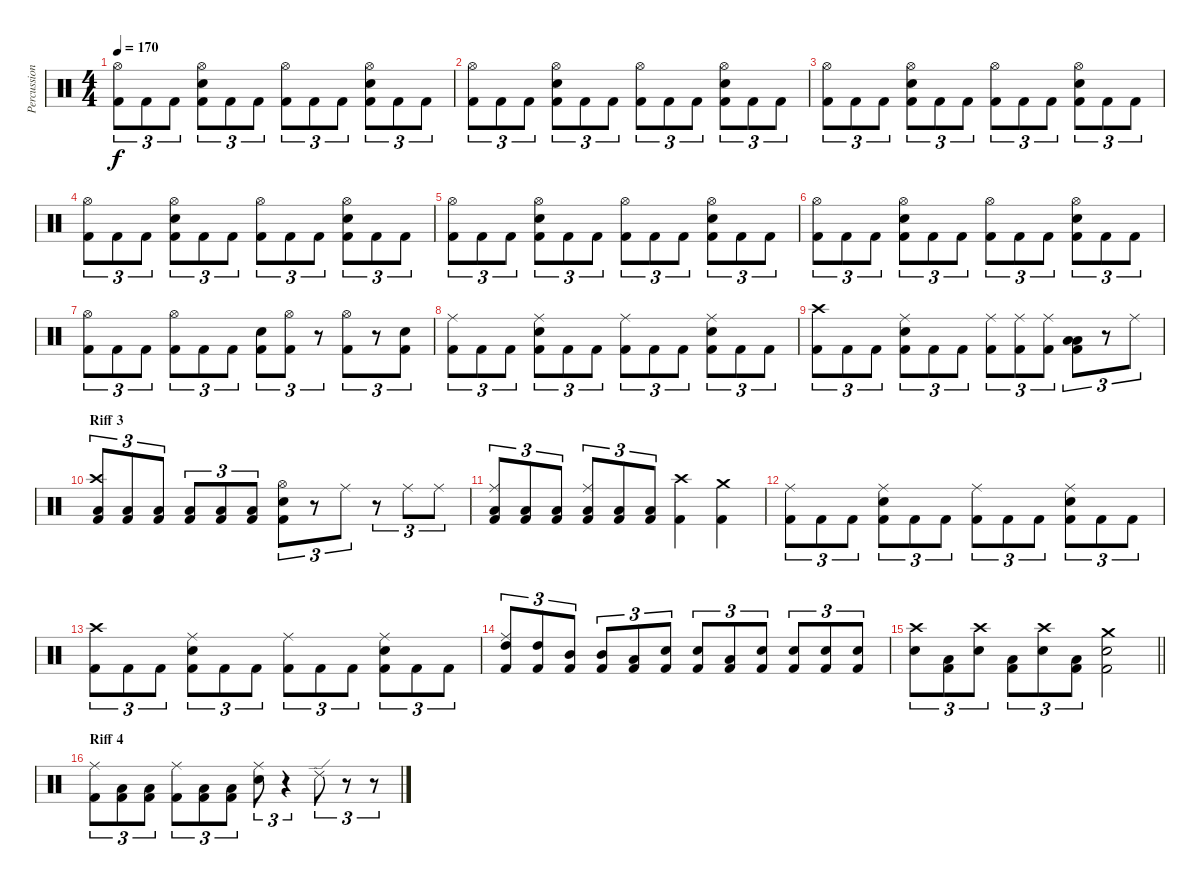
\track ("Percussions" "Percussion") {instrument percussion}
\staff {score}
\articulation defaults
\ts (4 4)
\tempo 170
\clef neutral
\ks c
("Hi-Hat (open)" "Kick (hit) 2").8{tu (3 2) dy f} "Kick (hit) 2".8{tu (3 2)} "Kick (hit) 2".8{tu (3 2)} ("Hi-Hat (open)" "Snare (hit) 2" "Kick (hit) 2").8{tu (3 2)} "Kick (hit) 2".8{tu (3 2)} "Kick (hit) 2".8{tu (3 2)} ("Hi-Hat (open)" "Kick (hit) 2").8{tu (3 2)} "Kick (hit) 2".8{tu (3 2)} "Kick (hit) 2".8{tu (3 2)} ("Hi-Hat (open)" "Snare (hit) 2" "Kick (hit) 2").8{tu (3 2)} "Kick (hit) 2".8{tu (3 2)} "Kick (hit) 2".8{tu (3 2)} |
("Hi-Hat (open)" "Kick (hit) 2").8{tu (3 2)} "Kick (hit) 2".8{tu (3 2)} "Kick (hit) 2".8{tu (3 2)} ("Hi-Hat (open)" "Snare (hit) 2" "Kick (hit) 2").8{tu (3 2)} "Kick (hit) 2".8{tu (3 2)} "Kick (hit) 2".8{tu (3 2)} ("Hi-Hat (open)" "Kick (hit) 2").8{tu (3 2)} "Kick (hit) 2".8{tu (3 2)} "Kick (hit) 2".8{tu (3 2)} ("Hi-Hat (open)" "Snare (hit) 2" "Kick (hit) 2").8{tu (3 2)} "Kick (hit) 2".8{tu (3 2)} "Kick (hit) 2".8{tu (3 2)} |
("Hi-Hat (open)" "Kick (hit) 2").8{tu (3 2)} "Kick (hit) 2".8{tu (3 2)} "Kick (hit) 2".8{tu (3 2)} ("Hi-Hat (open)" "Snare (hit) 2" "Kick (hit) 2").8{tu (3 2)} "Kick (hit) 2".8{tu (3 2)} "Kick (hit) 2".8{tu (3 2)} ("Hi-Hat (open)" "Kick (hit) 2").8{tu (3 2)} "Kick (hit) 2".8{tu (3 2)} "Kick (hit) 2".8{tu (3 2)} ("Hi-Hat (open)" "Snare (hit) 2" "Kick (hit) 2").8{tu (3 2)} "Kick (hit) 2".8{tu (3 2)} "Kick (hit) 2".8{tu (3 2)} |
("Hi-Hat (open)" "Kick (hit) 2").8{tu (3 2)} "Kick (hit) 2".8{tu (3 2)} "Kick (hit) 2".8{tu (3 2)} ("Hi-Hat (open)" "Snare (hit) 2" "Kick (hit) 2").8{tu (3 2)} "Kick (hit) 2".8{tu (3 2)} "Kick (hit) 2".8{tu (3 2)} ("Hi-Hat (open)" "Kick (hit) 2").8{tu (3 2)} "Kick (hit) 2".8{tu (3 2)} "Kick (hit) 2".8{tu (3 2)} ("Hi-Hat (open)" "Snare (hit) 2" "Kick (hit) 2").8{tu (3 2)} "Kick (hit) 2".8{tu (3 2)} "Kick (hit) 2".8{tu (3 2)} |
("Hi-Hat (open)" "Kick (hit) 2").8{tu (3 2)} "Kick (hit) 2".8{tu (3 2)} "Kick (hit) 2".8{tu (3 2)} ("Hi-Hat (open)" "Snare (hit) 2" "Kick (hit) 2").8{tu (3 2)} "Kick (hit) 2".8{tu (3 2)} "Kick (hit) 2".8{tu (3 2)} ("Hi-Hat (open)" "Kick (hit) 2").8{tu (3 2)} "Kick (hit) 2".8{tu (3 2)} "Kick (hit) 2".8{tu (3 2)} ("Hi-Hat (open)" "Snare (hit) 2" "Kick (hit) 2").8{tu (3 2)} "Kick (hit) 2".8{tu (3 2)} "Kick (hit) 2".8{tu (3 2)} |
("Hi-Hat (open)" "Kick (hit) 2").8{tu (3 2)} "Kick (hit) 2".8{tu (3 2)} "Kick (hit) 2".8{tu (3 2)} ("Hi-Hat (open)" "Snare (hit) 2" "Kick (hit) 2").8{tu (3 2)} "Kick (hit) 2".8{tu (3 2)} "Kick (hit) 2".8{tu (3 2)} ("Hi-Hat (open)" "Kick (hit) 2").8{tu (3 2)} "Kick (hit) 2".8{tu (3 2)} "Kick (hit) 2".8{tu (3 2)} ("Hi-Hat (open)" "Snare (hit) 2" "Kick (hit) 2").8{tu (3 2)} "Kick (hit) 2".8{tu (3 2)} "Kick (hit) 2".8{tu (3 2)} |
("Hi-Hat (open)" "Kick (hit) 2").8{tu (3 2)} "Kick (hit) 2".8{tu (3 2)} "Kick (hit) 2".8{tu (3 2)} ("Hi-Hat (open)" "Kick (hit) 2").8{tu (3 2)} "Kick (hit) 2".8{tu (3 2)} "Kick (hit) 2".8{tu (3 2)} ("Snare (hit) 2" "Kick (hit) 2").8{tu (3 2)} ("Hi-Hat (open)" "Kick (hit) 2").8{tu (3 2)} r.8{tu (3 2)} ("Hi-Hat (open)" "Kick (hit) 2").8{tu (3 2)} r.8{tu (3 2)} ("Snare (hit) 2" "Kick (hit) 2").8{tu (3 2)} |
("Ride (middle)" "Kick (hit) 2").8{tu (3 2)} "Kick (hit) 2".8{tu (3 2)} "Kick (hit) 2".8{tu (3 2)} ("Ride (middle)" "Snare (hit) 2" "Kick (hit) 2").8{tu (3 2)} "Kick (hit) 2".8{tu (3 2)} "Kick (hit) 2".8{tu (3 2)} ("Ride (middle)" "Kick (hit) 2").8{tu (3 2)} "Kick (hit) 2".8{tu (3 2)} "Kick (hit) 2".8{tu (3 2)} ("Ride (middle)" "Snare (hit) 2" "Kick (hit) 2").8{tu (3 2)} "Kick (hit) 2".8{tu (3 2)} "Kick (hit) 2".8{tu (3 2)} |
("Crash high (hit)" "Kick (hit) 2").8{tu (3 2)} "Kick (hit) 2".8{tu (3 2)} "Kick (hit) 2".8{tu (3 2)} ("Ride (middle)" "Snare (hit) 2" "Kick (hit) 2").8{tu (3 2)} "Kick (hit) 2".8{tu (3 2)} "Kick (hit) 2".8{tu (3 2)} ("Ride (middle)" "Kick (hit) 2").8{tu (3 2)} ("Ride (middle)" "Kick (hit) 2").8{tu (3 2)} ("Ride (middle)" "Kick (hit) 2").8{tu (3 2)} ("Low Tom (hit)" "Low Floor Tom (hit)" "Kick (hit) 2").8{tu (3 2)} r.8{tu (3 2)} "Ride (middle)".8{tu (3 2)} |
\section ("" "Riff 3")
("Crash high (hit)" "Low Floor Tom (hit)" "Kick (hit) 2").8{tu (3 2)} ("Low Floor Tom (hit)" "Kick (hit) 2").8{tu (3 2)} ("Low Floor Tom (hit)" "Kick (hit) 2").8{tu (3 2)} ("Low Floor Tom (hit)" "Kick (hit) 2").8{tu (3 2)} ("Low Floor Tom (hit)" "Kick (hit) 2").8{tu (3 2)} ("Low Floor Tom (hit)" "Kick (hit) 2").8{tu (3 2)} ("Hi-Hat (open)" "Snare (hit) 2" "Kick (hit) 2").8{tu (3 2)} r.8{tu (3 2)} "Ride (middle)".8{tu (3 2)} r.8{tu (3 2)} "Ride (middle)".8{tu (3 2)} "Ride (middle)".8{tu (3 2)} |
("Ride (middle)" "Low Floor Tom (hit)" "Kick (hit) 2").8{tu (3 2)} ("Low Floor Tom (hit)" "Kick (hit) 2").8{tu (3 2)} ("Low Floor Tom (hit)" "Kick (hit) 2").8{tu (3 2)} ("Ride (middle)" "Low Floor Tom (hit)" "Kick (hit) 2").8{tu (3 2)} ("Low Floor Tom (hit)" "Kick (hit) 2").8{tu (3 2)} ("Low Floor Tom (hit)" "Kick (hit) 2").8{tu (3 2)} ("Crash high (hit)" "Kick (hit) 2").4 ("Crash medium (hit)" "Kick (hit) 2").4 |
("Ride (middle)" "Kick (hit) 2").8{tu (3 2)} "Kick (hit) 2".8{tu (3 2)} "Kick (hit) 2".8{tu (3 2)} ("Ride (middle)" "Snare (hit) 2" "Kick (hit) 2").8{tu (3 2)} "Kick (hit) 2".8{tu (3 2)} "Kick (hit) 2".8{tu (3 2)} ("Ride (middle)" "Kick (hit) 2").8{tu (3 2)} "Kick (hit) 2".8{tu (3 2)} "Kick (hit) 2".8{tu (3 2)} ("Ride (middle)" "Snare (hit) 2" "Kick (hit) 2").8{tu (3 2)} "Kick (hit) 2".8{tu (3 2)} "Kick (hit) 2".8{tu (3 2)} |
("Crash high (hit)" "Kick (hit) 2").8{tu (3 2)} "Kick (hit) 2".8{tu (3 2)} "Kick (hit) 2".8{tu (3 2)} ("Ride (middle)" "Snare (hit) 2" "Kick (hit) 2").8{tu (3 2)} "Kick (hit) 2".8{tu (3 2)} "Kick (hit) 2".8{tu (3 2)} ("Ride (middle)" "Kick (hit) 2").8{tu (3 2)} "Kick (hit) 2".8{tu (3 2)} "Kick (hit) 2".8{tu (3 2)} ("Ride (middle)" "Snare (hit) 2" "Kick (hit) 2").8{tu (3 2)} "Kick (hit) 2".8{tu (3 2)} "Kick (hit) 2".8{tu (3 2)} |
("Ride (middle)" "High Tom (hit)" "Kick (hit) 2").8{tu (3 2)} ("High Tom (hit)" "Kick (hit) 2").8{tu (3 2)} ("Mid Tom (hit)" "Kick (hit) 2").8{tu (3 2)} ("Mid Tom (hit)" "Kick (hit) 2").8{tu (3 2)} ("Low Tom (hit)" "Kick (hit) 2").8{tu (3 2)} ("Snare (hit) 2" "Kick (hit) 2").8{tu (3 2)} ("Snare (hit) 2" "Kick (hit) 2").8{tu (3 2)} ("Low Tom (hit)" "Kick (hit) 2").8{tu (3 2)} ("Snare (hit) 2" "Kick (hit) 2").8{tu (3 2)} ("Snare (hit) 2" "Kick (hit) 2").8{tu (3 2)} ("Snare (hit) 2" "Kick (hit) 2").8{tu (3 2)} ("Snare (hit) 2" "Kick (hit) 2").8{tu (3 2)} |
\barLineRight lightlight
("Crash high (hit)" "Snare (hit) 2").8{tu (3 2)} ("Low Floor Tom (hit)" "Kick (hit) 2").8{tu (3 2)} ("Crash high (hit)" "Snare (hit) 2").8{tu (3 2)} ("Low Floor Tom (hit)" "Kick (hit) 2").8{tu (3 2)} ("Crash high (hit)" "Snare (hit) 2").8{tu (3 2)} ("Low Floor Tom (hit)" "Kick (hit) 2").8{tu (3 2)} ("Crash medium (hit)" "Snare (hit) 2" "Kick (hit) 2").2 |
\section ("" "Riff 4")
("Ride (middle)" "Kick (hit) 2").8{tu (3 2)} ("Low Floor Tom (hit)" "Kick (hit) 2").8{tu (3 2)} ("Low Floor Tom (hit)" "Kick (hit) 2").8{tu (3 2)} ("Ride (middle)" "Kick (hit) 2").8{tu (3 2)} ("Low Floor Tom (hit)" "Kick (hit) 2").8{tu (3 2)} ("Low Floor Tom (hit)" "Kick (hit) 2").8{tu (3 2)} ("Ride (middle)" "Snare (hit) 2").8{tu (3 2)} r.4{tu (3 2)} "Ride (edge) 2".8{tu (3 2)} r.8{tu (3 2)} r.8{tu (3 2)}
